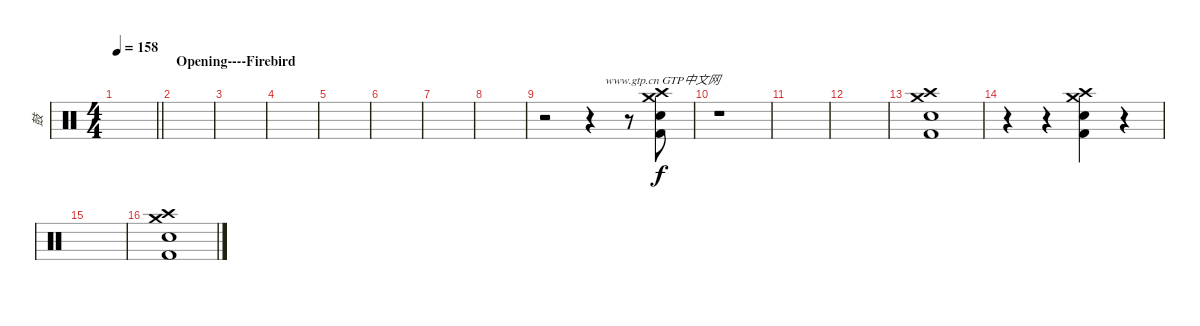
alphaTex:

\track ("鼓" "鼓") {instrument percussion}
\staff {score}
\articulation defaults
\ts (4 4)
\tempo 158
\clef neutral
\barLineRight lightlight
\ks c
|
\section ("" "Opening----Firebird")
|
|
|
|
|
|
|
r.2{txt "                    www.gtp.cn GTP中文网"} r.4 r.8 ("Crash high (hit)" "Crash medium (hit)" "Electric Snare (hit)" "Kick (hit) 2").8 |
r.1 |
|
|
("Crash high (hit)" "Crash medium (hit)" "Electric Snare (hit)" "Kick (hit) 2").1 |
r.4 r.4 ("Crash high (hit)" "Crash medium (hit)" "Electric Snare (hit)" "Kick (hit) 2").4 r.4 |
|
("Crash high (hit)" "Crash medium (hit)" "Electric Snare (hit)" "Kick (hit) 2").1
